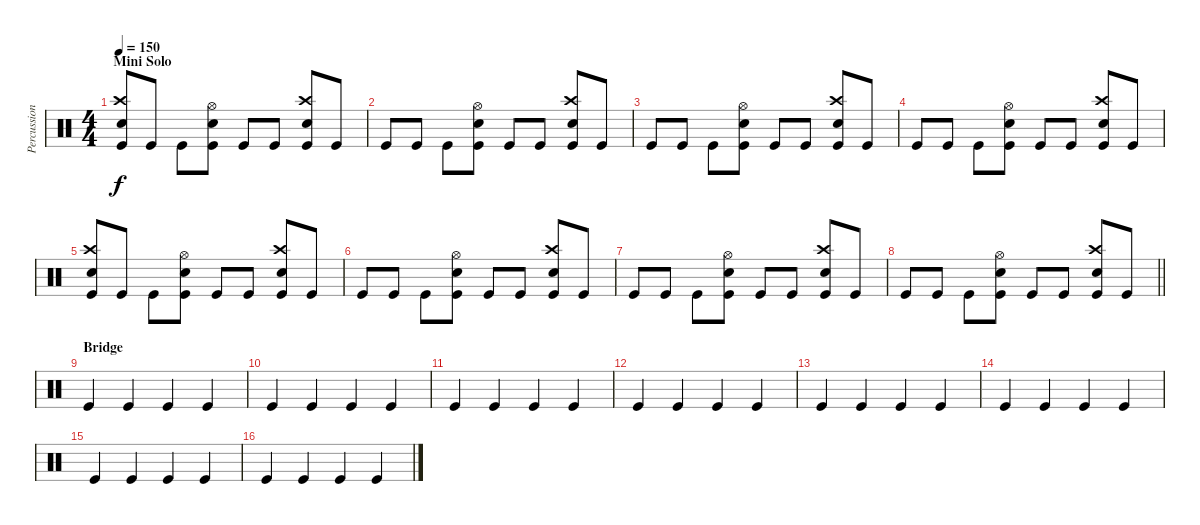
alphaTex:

\track ("Percussion" "Percussion") {instrument percussion}
\staff {score}
\articulation defaults
\ts (4 4)
\section ("" "Mini Solo")
\tempo 150
\clef neutral
\ks c
("Kick (hit)" "Crash high (hit)" "Snare (hit) 2").8{dy f} "Kick (hit)".8 "Kick (hit)".8 ("Kick (hit)" "Snare (hit) 2" "Hi-Hat (open)").8 "Kick (hit)".8 "Kick (hit)".8 ("Snare (hit) 2" "Kick (hit)" "Crash high (hit)").8 "Kick (hit)".8 |
"Kick (hit)".8 "Kick (hit)".8 "Kick (hit)".8 ("Kick (hit)" "Snare (hit) 2" "Hi-Hat (open)").8 "Kick (hit)".8 "Kick (hit)".8 ("Kick (hit)" "Snare (hit) 2" "Crash high (hit)").8 "Kick (hit)".8 |
"Kick (hit)".8 "Kick (hit)".8 "Kick (hit)".8 ("Kick (hit)" "Snare (hit) 2" "Hi-Hat (open)").8 "Kick (hit)".8 "Kick (hit)".8 ("Kick (hit)" "Snare (hit) 2" "Crash high (hit)").8 "Kick (hit)".8 |
"Kick (hit)".8 "Kick (hit)".8 "Kick (hit)".8 ("Kick (hit)" "Snare (hit) 2" "Hi-Hat (open)").8 "Kick (hit)".8 "Kick (hit)".8 ("Kick (hit)" "Snare (hit) 2" "Crash high (hit)").8 "Kick (hit)".8 |
("Kick (hit)" "Crash high (hit)" "Snare (hit) 2").8 "Kick (hit)".8 "Kick (hit)".8 ("Kick (hit)" "Snare (hit) 2" "Hi-Hat (open)").8 "Kick (hit)".8 "Kick (hit)".8 ("Snare (hit) 2" "Kick (hit)" "Crash high (hit)").8 "Kick (hit)".8 |
"Kick (hit)".8 "Kick (hit)".8 "Kick (hit)".8 ("Kick (hit)" "Snare (hit) 2" "Hi-Hat (open)").8 "Kick (hit)".8 "Kick (hit)".8 ("Kick (hit)" "Snare (hit) 2" "Crash high (hit)").8 "Kick (hit)".8 |
"Kick (hit)".8 "Kick (hit)".8 "Kick (hit)".8 ("Kick (hit)" "Snare (hit) 2" "Hi-Hat (open)").8 "Kick (hit)".8 "Kick (hit)".8 ("Kick (hit)" "Snare (hit) 2" "Crash high (hit)").8 "Kick (hit)".8 |
\barLineRight lightlight "Kick (hit)".8 "Kick (hit)".8 "Kick (hit)".8
("Kick (hit)" "Snare (hit) 2" "Hi-Hat (open)").8 "Kick (hit)".8 "Kick (hit)".8 ("Kick (hit)" "Snare (hit) 2" "Crash high (hit)").8 "Kick (hit)".8 |
\section ("" "Bridge")
"Kick (hit)".4 "Kick (hit)".4 "Kick (hit)".4 "Kick (hit)".4 |
"Kick (hit)".4 "Kick (hit)".4 "Kick (hit)".4 "Kick (hit)".4 |
"Kick (hit)".4 "Kick (hit)".4 "Kick (hit)".4 "Kick (hit)".4 |
"Kick (hit)".4 "Kick (hit)".4 "Kick (hit)".4 "Kick (hit)".4 |
"Kick (hit)".4 "Kick (hit)".4 "Kick (hit)".4 "Kick (hit)".4 |
"Kick (hit)".4 "Kick (hit)".4 "Kick (hit)".4 "Kick (hit)".4 |
"Kick (hit)".4 "Kick (hit)".4 "Kick (hit)".4 "Kick (hit)".4 |
"Kick (hit)".4 "Kick (hit)".4 "Kick (hit)".4 "Kick (hit)".4
